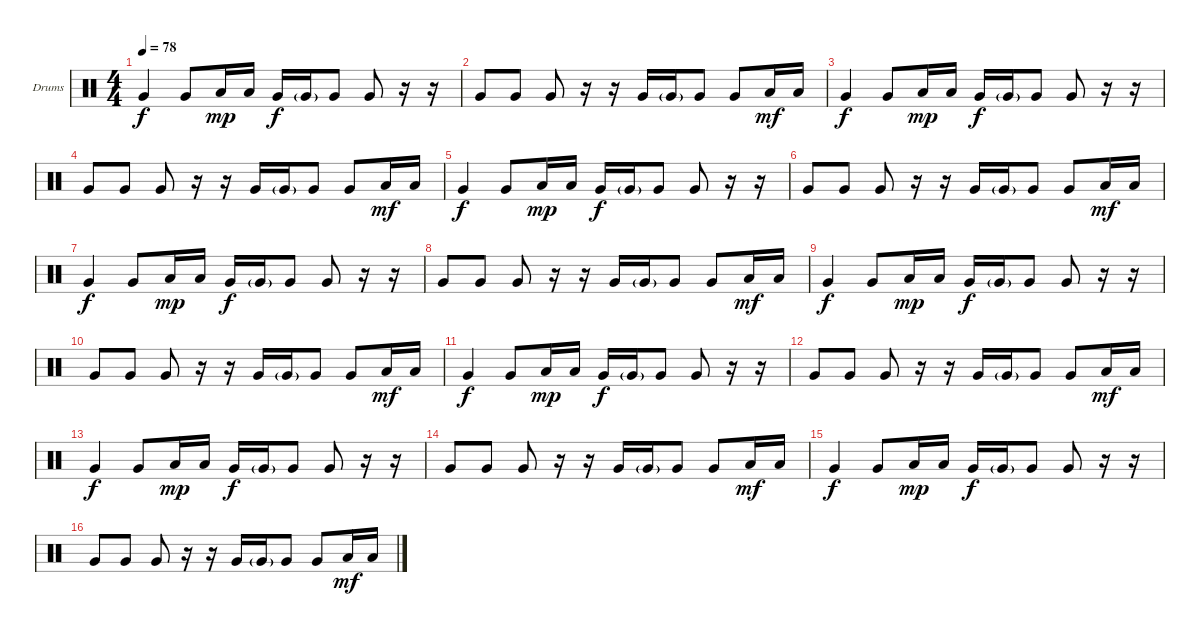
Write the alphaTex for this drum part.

\defaultSystemsLayout 4
\bracketExtendMode groupsimilarinstruments
\firstSystemTrackNameOrientation horizontal
\otherSystemsTrackNameOrientation horizontal
\track ("Drumkit" "Drums") {instrument percussion}
\staff {score}
\articulation defaults
\ts (4 4)
\tempo 78
\clef neutral
\scale
0.333333
\ks c "Very Low Tom (hit)".4{dy f} "Very Low Tom (hit)".8 "Low Tom (hit)".16{dy mp} "Low Tom (hit)".16 "Very Low Tom (hit)".16{dy f} "Very Low Tom (hit)"{g}.16 "Very Low Tom (hit)".8 "Very Low Tom (hit)".8
r.16 r.16 |
\scale
0.333333 "Very Low Tom (hit)".8 "Very Low Tom (hit)".8 "Very Low Tom (hit)".8 r.16 r.16 "Very Low Tom (hit)".16 "Very Low Tom (hit)"{g}.16 "Very Low Tom (hit)".8 "Very Low Tom (hit)".8 "Low Tom (hit)".16{dy mf} "Low Tom (hit)".16 |
\scale
0.333333 "Very Low Tom (hit)".4{dy f} "Very Low Tom (hit)".8 "Low Tom (hit)".16{dy mp} "Low Tom (hit)".16 "Very Low Tom (hit)".16{dy f} "Very Low Tom (hit)"{g}.16 "Very Low Tom (hit)".8 "Very Low Tom (hit)".8 r.16 r.16 |
\scale
0.333333 "Very Low Tom (hit)".8 "Very Low Tom (hit)".8 "Very Low Tom (hit)".8 r.16 r.16 "Very Low Tom (hit)".16 "Very Low Tom (hit)"{g}.16 "Very Low Tom (hit)".8 "Very Low Tom (hit)".8 "Low Tom (hit)".16{dy mf} "Low Tom (hit)".16 |
\scale
0.333333 "Very Low Tom (hit)".4{dy f} "Very Low Tom (hit)".8 "Low Tom (hit)".16{dy mp} "Low Tom (hit)".16 "Very Low Tom (hit)".16{dy f} "Very Low Tom (hit)"{g}.16 "Very Low Tom (hit)".8 "Very Low Tom (hit)".8 r.16 r.16 |
\scale
0.333333 "Very Low Tom (hit)".8 "Very Low Tom (hit)".8 "Very Low Tom (hit)".8 r.16 r.16 "Very Low Tom (hit)".16 "Very Low Tom (hit)"{g}.16 "Very Low Tom (hit)".8 "Very Low Tom (hit)".8 "Low Tom (hit)".16{dy mf} "Low Tom (hit)".16 |
\scale
0.333333 "Very Low Tom (hit)".4{dy f} "Very Low Tom (hit)".8 "Low Tom (hit)".16{dy mp} "Low Tom (hit)".16 "Very Low Tom (hit)".16{dy f} "Very Low Tom (hit)"{g}.16 "Very Low Tom (hit)".8 "Very Low Tom (hit)".8 r.16 r.16 |
\scale
0.333333 "Very Low Tom (hit)".8 "Very Low Tom (hit)".8 "Very Low Tom (hit)".8 r.16 r.16 "Very Low Tom (hit)".16 "Very Low Tom (hit)"{g}.16 "Very Low Tom (hit)".8 "Very Low Tom (hit)".8 "Low Tom (hit)".16{dy mf} "Low Tom (hit)".16 |
\scale
0.333333 "Very Low Tom (hit)".4{dy f} "Very Low Tom (hit)".8 "Low Tom (hit)".16{dy mp} "Low Tom (hit)".16 "Very Low Tom (hit)".16{dy f} "Very Low Tom (hit)"{g}.16 "Very Low Tom (hit)".8 "Very Low Tom (hit)".8 r.16 r.16 |
"Very Low Tom (hit)".8 "Very Low Tom (hit)".8 "Very Low Tom (hit)".8 r.16 r.16 "Very Low Tom (hit)".16 "Very Low Tom (hit)"{g}.16 "Very Low Tom (hit)".8 "Very Low Tom (hit)".8 "Low Tom (hit)".16{dy mf} "Low Tom (hit)".16 |
"Very Low Tom (hit)".4{dy f} "Very Low Tom (hit)".8 "Low Tom (hit)".16{dy mp} "Low Tom (hit)".16 "Very Low Tom (hit)".16{dy f} "Very Low Tom (hit)"{g}.16 "Very Low Tom (hit)".8 "Very Low Tom (hit)".8 r.16 r.16 |
"Very Low Tom (hit)".8 "Very Low Tom (hit)".8 "Very Low Tom (hit)".8 r.16 r.16 "Very Low Tom (hit)".16 "Very Low Tom (hit)"{g}.16 "Very Low Tom (hit)".8 "Very Low Tom (hit)".8 "Low Tom (hit)".16{dy mf} "Low Tom (hit)".16 |
"Very Low Tom (hit)".4{dy f} "Very Low Tom (hit)".8 "Low Tom (hit)".16{dy mp} "Low Tom (hit)".16 "Very Low Tom (hit)".16{dy f} "Very Low Tom (hit)"{g}.16 "Very Low Tom (hit)".8 "Very Low Tom (hit)".8 r.16 r.16 |
"Very Low Tom (hit)".8 "Very Low Tom (hit)".8 "Very Low Tom (hit)".8 r.16 r.16 "Very Low Tom (hit)".16 "Very Low Tom (hit)"{g}.16 "Very Low Tom (hit)".8 "Very Low Tom (hit)".8 "Low Tom (hit)".16{dy mf} "Low Tom (hit)".16 |
"Very Low Tom (hit)".4{dy f} "Very Low Tom (hit)".8 "Low Tom (hit)".16{dy mp} "Low Tom (hit)".16 "Very Low Tom (hit)".16{dy f} "Very Low Tom (hit)"{g}.16 "Very Low Tom (hit)".8 "Very Low Tom (hit)".8 r.16 r.16 |
"Very Low Tom (hit)".8 "Very Low Tom (hit)".8 "Very Low Tom (hit)".8 r.16 r.16 "Very Low Tom (hit)".16 "Very Low Tom (hit)"{g}.16 "Very Low Tom (hit)".8 "Very Low Tom (hit)".8 "Low Tom (hit)".16{dy mf} "Low Tom (hit)".16
